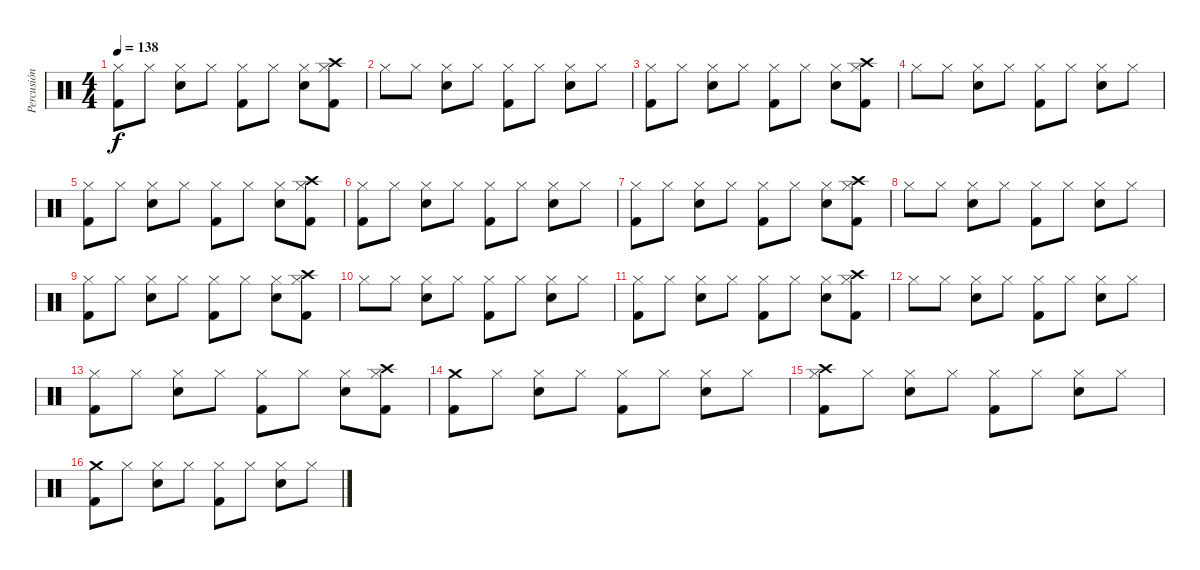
\track ("Percusión" "Percusión") {instrument percussion bank 10}
\staff {score}
\articulation defaults
\ts (4 4)
\tempo 138
\clef neutral
\ks c
("Hi-Hat (closed)" "Kick (hit) 2").8{dy f} "Hi-Hat (closed)".8 ("Hi-Hat (closed)" "Snare (hit) 2").8 "Hi-Hat (closed)".8 ("Hi-Hat (closed)" "Kick (hit) 2").8 "Hi-Hat (closed)".8 ("Hi-Hat (closed)" "Snare (hit) 2").8 ("Hi-Hat (closed)" "Crash high (hit)" "Kick (hit) 2").8 |
"Hi-Hat (closed)".8 "Hi-Hat (closed)".8 ("Hi-Hat (closed)" "Snare (hit) 2").8 "Hi-Hat (closed)".8 ("Hi-Hat (closed)" "Kick (hit) 2").8 "Hi-Hat (closed)".8 ("Hi-Hat (closed)" "Snare (hit) 2").8 "Hi-Hat (closed)".8 |
("Hi-Hat (closed)" "Kick (hit) 2").8 "Hi-Hat (closed)".8 ("Hi-Hat (closed)" "Snare (hit) 2").8 "Hi-Hat (closed)".8 ("Hi-Hat (closed)" "Kick (hit) 2").8 "Hi-Hat (closed)".8 ("Hi-Hat (closed)" "Snare (hit) 2").8 ("Hi-Hat (closed)" "Crash high (hit)" "Kick (hit) 2").8 |
"Hi-Hat (closed)".8 "Hi-Hat (closed)".8 ("Hi-Hat (closed)" "Snare (hit) 2").8 "Hi-Hat (closed)".8 ("Hi-Hat (closed)" "Kick (hit) 2").8 "Hi-Hat (closed)".8 ("Hi-Hat (closed)" "Snare (hit) 2").8 "Hi-Hat (closed)".8 |
("Hi-Hat (closed)" "Kick (hit) 2").8 "Hi-Hat (closed)".8 ("Hi-Hat (closed)" "Snare (hit) 2").8 "Hi-Hat (closed)".8 ("Hi-Hat (closed)" "Kick (hit) 2").8 "Hi-Hat (closed)".8 ("Hi-Hat (closed)" "Snare (hit) 2").8 ("Hi-Hat (closed)" "Crash high (hit)" "Kick (hit) 2").8 |
("Hi-Hat (closed)" "Kick (hit) 2").8 "Hi-Hat (closed)".8 ("Hi-Hat (closed)" "Snare (hit) 2").8 "Hi-Hat (closed)".8 ("Hi-Hat (closed)" "Kick (hit) 2").8 "Hi-Hat (closed)".8 ("Hi-Hat (closed)" "Snare (hit) 2").8 "Hi-Hat (closed)".8 |
("Hi-Hat (closed)" "Kick (hit) 2").8 "Hi-Hat (closed)".8 ("Hi-Hat (closed)" "Snare (hit) 2").8 "Hi-Hat (closed)".8 ("Hi-Hat (closed)" "Kick (hit) 2").8 "Hi-Hat (closed)".8 ("Hi-Hat (closed)" "Snare (hit) 2").8 ("Hi-Hat (closed)" "Crash high (hit)" "Kick (hit) 2").8 |
"Hi-Hat (closed)".8 "Hi-Hat (closed)".8 ("Hi-Hat (closed)" "Snare (hit) 2").8 "Hi-Hat (closed)".8 ("Hi-Hat (closed)" "Kick (hit) 2").8 "Hi-Hat (closed)".8 ("Hi-Hat (closed)" "Snare (hit) 2").8 "Hi-Hat (closed)".8 |
("Hi-Hat (closed)" "Kick (hit) 2").8 "Hi-Hat (closed)".8 ("Hi-Hat (closed)" "Snare (hit) 2").8 "Hi-Hat (closed)".8 ("Hi-Hat (closed)" "Kick (hit) 2").8 "Hi-Hat (closed)".8 ("Hi-Hat (closed)" "Snare (hit) 2").8 ("Hi-Hat (closed)" "Crash high (hit)" "Kick (hit) 2").8 |
"Hi-Hat (closed)".8 "Hi-Hat (closed)".8 ("Hi-Hat (closed)" "Snare (hit) 2").8 "Hi-Hat (closed)".8 ("Hi-Hat (closed)" "Kick (hit) 2").8 "Hi-Hat (closed)".8 ("Hi-Hat (closed)" "Snare (hit) 2").8 "Hi-Hat (closed)".8 |
("Hi-Hat (closed)" "Kick (hit) 2").8 "Hi-Hat (closed)".8 ("Hi-Hat (closed)" "Snare (hit) 2").8 "Hi-Hat (closed)".8 ("Hi-Hat (closed)" "Kick (hit) 2").8 "Hi-Hat (closed)".8 ("Hi-Hat (closed)" "Snare (hit) 2").8 ("Hi-Hat (closed)" "Crash high (hit)" "Kick (hit) 2").8 |
"Hi-Hat (closed)".8 "Hi-Hat (closed)".8 ("Hi-Hat (closed)" "Snare (hit) 2").8 "Hi-Hat (closed)".8 ("Hi-Hat (closed)" "Kick (hit) 2").8 "Hi-Hat (closed)".8 ("Hi-Hat (closed)" "Snare (hit) 2").8 "Hi-Hat (closed)".8 |
("Hi-Hat (closed)" "Kick (hit) 2").8 "Hi-Hat (closed)".8 ("Hi-Hat (closed)" "Snare (hit) 2").8 "Hi-Hat (closed)".8 ("Hi-Hat (closed)" "Kick (hit) 2").8 "Hi-Hat (closed)".8 ("Hi-Hat (closed)" "Snare (hit) 2").8 ("Hi-Hat (closed)" "Crash high (hit)" "Kick (hit) 2").8 |
("Kick (hit) 2" "Crash medium (hit)").8 "Hi-Hat (closed)".8 ("Hi-Hat (closed)" "Snare (hit) 2").8 "Hi-Hat (closed)".8 ("Hi-Hat (closed)" "Kick (hit) 2").8 "Hi-Hat (closed)".8 ("Hi-Hat (closed)" "Snare (hit) 2").8 "Hi-Hat (closed)".8 |
("Hi-Hat (closed)" "Kick (hit) 2" "Crash high (hit)").8 "Hi-Hat (closed)".8 ("Hi-Hat (closed)" "Snare (hit) 2").8 "Hi-Hat (closed)".8 ("Hi-Hat (closed)" "Kick (hit) 2").8 "Hi-Hat (closed)".8 ("Hi-Hat (closed)" "Snare (hit) 2").8 "Hi-Hat (closed)".8 |
("Kick (hit) 2" "Crash medium (hit)").8 "Hi-Hat (closed)".8 ("Hi-Hat (closed)" "Snare (hit) 2").8 "Hi-Hat (closed)".8 ("Hi-Hat (closed)" "Kick (hit) 2").8 "Hi-Hat (closed)".8 ("Hi-Hat (closed)" "Snare (hit) 2").8 "Hi-Hat (closed)".8
